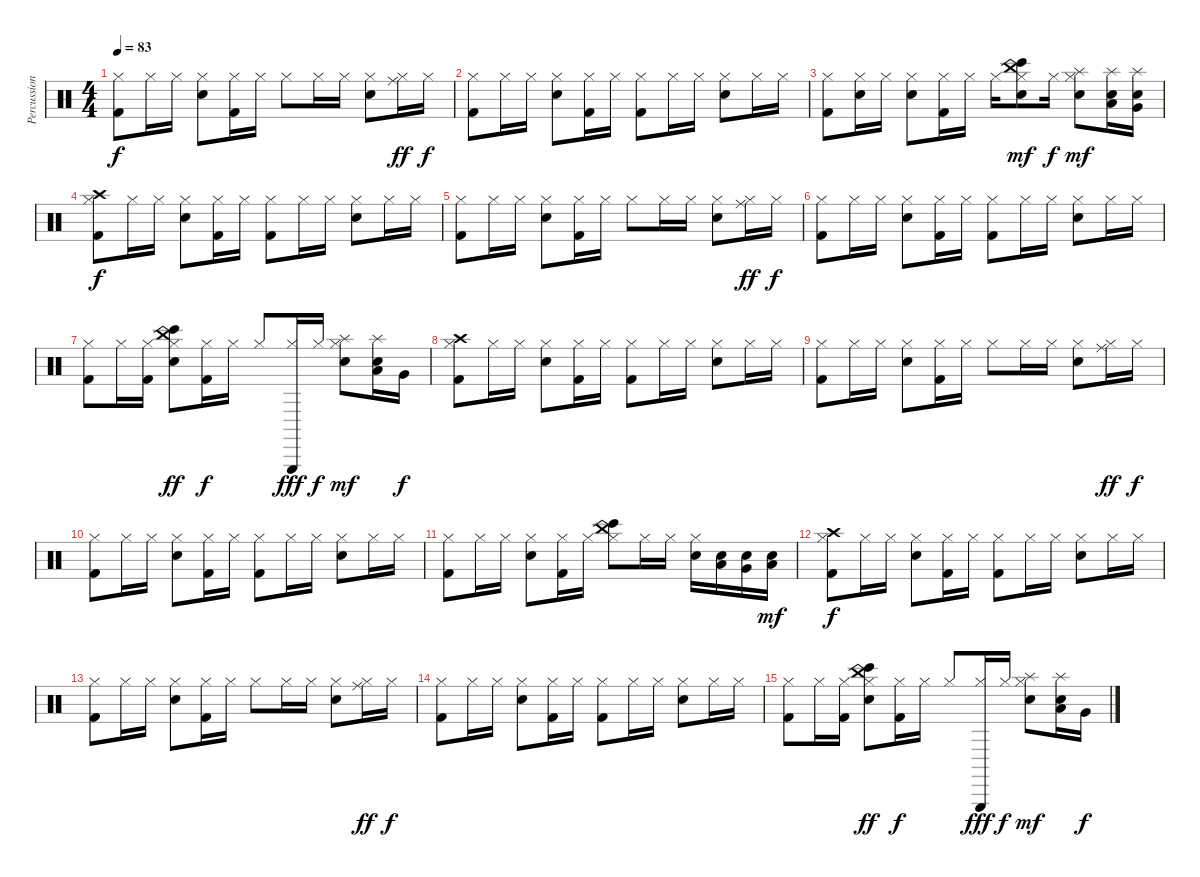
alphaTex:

\track ("Percussion" "Percussion") {instrument percussion}
\staff {score}
\articulation defaults
\ts (4 4)
\tempo 83
\clef neutral
\ks c
("Hi-Hat (closed)" "Kick (hit) 2").8{dy f} "Hi-Hat (closed)".16 "Hi-Hat (closed)".16 ("Hi-Hat (closed)" "Electric Snare (hit)").8 ("Hi-Hat (closed)" "Kick (hit) 2").16 "Hi-Hat (closed)".16 "Hi-Hat (closed)".8 "Hi-Hat (closed)".16 "Hi-Hat (closed)".16 ("Hi-Hat (closed)" "Electric Snare (hit)").8 ("Hi-Hat (closed)" "Ride (middle)").16{dy ff} "Hi-Hat (closed)".16{dy f} |
("Kick (hit) 2" "Hi-Hat (closed)").8 "Hi-Hat (closed)".16 "Hi-Hat (closed)".16 ("Hi-Hat (closed)" "Electric Snare (hit)").8 ("Hi-Hat (closed)" "Kick (hit) 2").16 "Hi-Hat (closed)".16 ("Hi-Hat (closed)" "Kick (hit) 2").8 "Hi-Hat (closed)".16 "Hi-Hat (closed)".16 ("Hi-Hat (closed)" "Electric Snare (hit)").8 "Hi-Hat (closed)".16 "Hi-Hat (closed)".16 |
("Hi-Hat (closed)" "Kick (hit) 2").8 ("Hi-Hat (closed)" "Electric Snare (hit)").16 "Hi-Hat (closed)".16 ("Hi-Hat (closed)" "Electric Snare (hit)").8 ("Hi-Hat (closed)" "Kick (hit) 2").16 "Hi-Hat (closed)".16 "Hi-Hat (closed)".16 ("Hi-Hat (closed)" "China (hit)" "Bongo High (hit)" "Electric Snare (hit)").8{dy mf} "Hi-Hat (closed)".16{dy f} ("Hi-Hat (closed)" "Electric Snare (hit)" "Splash (hit)").8{dy mf} ("Electric Snare (hit)" "Low Tom (hit)" "Splash (hit)").16 ("Electric Snare (hit)" "Very Low Tom (hit)" "Splash (hit)").16 |
("Kick (hit) 2" "Hi-Hat (closed)" "Crash high (hit)").8{dy f} "Hi-Hat (closed)".16 "Hi-Hat (closed)".16 ("Hi-Hat (closed)" "Electric Snare (hit)").8 ("Hi-Hat (closed)" "Kick (hit) 2").16 "Hi-Hat (closed)".16 ("Hi-Hat (closed)" "Kick (hit) 2").8 "Hi-Hat (closed)".16 "Hi-Hat (closed)".16 ("Hi-Hat (closed)" "Electric Snare (hit)").8 "Hi-Hat (closed)".16 "Hi-Hat (closed)".16 |
("Hi-Hat (closed)" "Kick (hit) 2").8 "Hi-Hat (closed)".16 "Hi-Hat (closed)".16 ("Hi-Hat (closed)" "Electric Snare (hit)").8 ("Hi-Hat (closed)" "Kick (hit) 2").16 "Hi-Hat (closed)".16 "Hi-Hat (closed)".8 "Hi-Hat (closed)".16 "Hi-Hat (closed)".16 ("Hi-Hat (closed)" "Electric Snare (hit)").8 ("Hi-Hat (closed)" "Ride (middle)").16{dy ff} "Hi-Hat (closed)".16{dy f} |
("Kick (hit) 2" "Hi-Hat (closed)").8 "Hi-Hat (closed)".16 "Hi-Hat (closed)".16 ("Hi-Hat (closed)" "Electric Snare (hit)").8 ("Hi-Hat (closed)" "Kick (hit) 2").16 "Hi-Hat (closed)".16 ("Hi-Hat (closed)" "Kick (hit) 2").8 "Hi-Hat (closed)".16 "Hi-Hat (closed)".16 ("Hi-Hat (closed)" "Electric Snare (hit)").8 "Hi-Hat (closed)".16 "Hi-Hat (closed)".16 |
("Hi-Hat (closed)" "Kick (hit) 2").8 "Hi-Hat (closed)".16 ("Hi-Hat (closed)" "Kick (hit) 2").16 ("Hi-Hat (closed)" "Snare (hit) 2" "China (hit)" "Bongo High (hit)").8{dy ff} ("Hi-Hat (closed)" "Kick (hit) 2").16{dy f} "Hi-Hat (closed)".16 "Hi-Hat (closed)".8 ("Hi-Hat (closed)" "Triangle (hit)").16{dy fff} "Hi-Hat (closed)".16{dy f} ("Hi-Hat (closed)" "Electric Snare (hit)" "Splash (hit)").8{dy mf} ("Electric Snare (hit)" "Low Tom (hit)" "Splash (hit)").16 "Very Low Tom (hit)".16{dy f} |
("Kick (hit) 2" "Hi-Hat (closed)" "Crash high (hit)").8 "Hi-Hat (closed)".16 "Hi-Hat (closed)".16 ("Hi-Hat (closed)" "Electric Snare (hit)").8 ("Hi-Hat (closed)" "Kick (hit) 2").16 "Hi-Hat (closed)".16 ("Hi-Hat (closed)" "Kick (hit) 2").8 "Hi-Hat (closed)".16 "Hi-Hat (closed)".16 ("Hi-Hat (closed)" "Electric Snare (hit)").8 "Hi-Hat (closed)".16 "Hi-Hat (closed)".16 |
("Hi-Hat (closed)" "Kick (hit) 2").8 "Hi-Hat (closed)".16 "Hi-Hat (closed)".16 ("Hi-Hat (closed)" "Electric Snare (hit)").8 ("Hi-Hat (closed)" "Kick (hit) 2").16 "Hi-Hat (closed)".16 "Hi-Hat (closed)".8 "Hi-Hat (closed)".16 "Hi-Hat (closed)".16 ("Hi-Hat (closed)" "Electric Snare (hit)").8 ("Hi-Hat (closed)" "Ride (middle)").16{dy ff} "Hi-Hat (closed)".16{dy f} |
("Kick (hit) 2" "Hi-Hat (closed)").8 "Hi-Hat (closed)".16 "Hi-Hat (closed)".16 ("Hi-Hat (closed)" "Electric Snare (hit)").8 ("Hi-Hat (closed)" "Kick (hit) 2").16 "Hi-Hat (closed)".16 ("Hi-Hat (closed)" "Kick (hit) 2").8 "Hi-Hat (closed)".16 "Hi-Hat (closed)".16 ("Hi-Hat (closed)" "Electric Snare (hit)").8 "Hi-Hat (closed)".16 "Hi-Hat (closed)".16 |
("Hi-Hat (closed)" "Kick (hit) 2").8 "Hi-Hat (closed)".16 "Hi-Hat (closed)".16 ("Hi-Hat (closed)" "Electric Snare (hit)").8 ("Hi-Hat (closed)" "Kick (hit) 2").16 "Hi-Hat (closed)".16 ("Hi-Hat (closed)" "China (hit)" "Bongo High (hit)").8 "Hi-Hat (closed)".16 "Hi-Hat (closed)".16 ("Hi-Hat (closed)" "Electric Snare (hit)").16 ("Electric Snare (hit)" "Low Tom (hit)").16 ("Electric Snare (hit)" "Very Low Tom (hit)").16 ("Electric Snare (hit)" "Low Floor Tom (hit)").16{dy mf} |
("Kick (hit) 2" "Hi-Hat (closed)" "Crash high (hit)").8{dy f} "Hi-Hat (closed)".16 "Hi-Hat (closed)".16 ("Hi-Hat (closed)" "Electric Snare (hit)").8 ("Hi-Hat (closed)" "Kick (hit) 2").16 "Hi-Hat (closed)".16 ("Hi-Hat (closed)" "Kick (hit) 2").8 "Hi-Hat (closed)".16 "Hi-Hat (closed)".16 ("Hi-Hat (closed)" "Electric Snare (hit)").8 "Hi-Hat (closed)".16 "Hi-Hat (closed)".16 |
("Hi-Hat (closed)" "Kick (hit) 2").8 "Hi-Hat (closed)".16 "Hi-Hat (closed)".16 ("Hi-Hat (closed)" "Electric Snare (hit)").8 ("Hi-Hat (closed)" "Kick (hit) 2").16 "Hi-Hat (closed)".16 "Hi-Hat (closed)".8 "Hi-Hat (closed)".16 "Hi-Hat (closed)".16 ("Hi-Hat (closed)" "Electric Snare (hit)").8 ("Hi-Hat (closed)" "Ride (middle)").16{dy ff} "Hi-Hat (closed)".16{dy f} |
("Kick (hit) 2" "Hi-Hat (closed)").8 "Hi-Hat (closed)".16 "Hi-Hat (closed)".16 ("Hi-Hat (closed)" "Electric Snare (hit)").8 ("Hi-Hat (closed)" "Kick (hit) 2").16 "Hi-Hat (closed)".16 ("Hi-Hat (closed)" "Kick (hit) 2").8 "Hi-Hat (closed)".16 "Hi-Hat (closed)".16 ("Hi-Hat (closed)" "Electric Snare (hit)").8 "Hi-Hat (closed)".16 "Hi-Hat (closed)".16 |
("Hi-Hat (closed)" "Kick (hit) 2").8 "Hi-Hat (closed)".16 ("Hi-Hat (closed)" "Kick (hit) 2").16 ("Hi-Hat (closed)" "Snare (hit) 2" "China (hit)" "Bongo High (hit)").8{dy ff} ("Hi-Hat (closed)" "Kick (hit) 2").16{dy f} "Hi-Hat (closed)".16 "Hi-Hat (closed)".8 ("Hi-Hat (closed)" "Triangle (hit)").16{dy fff} "Hi-Hat (closed)".16{dy f} ("Hi-Hat (closed)" "Electric Snare (hit)" "Splash (hit)").8{dy mf} ("Electric Snare (hit)" "Low Tom (hit)" "Splash (hit)").16 "Very Low Tom (hit)".16{dy f}
